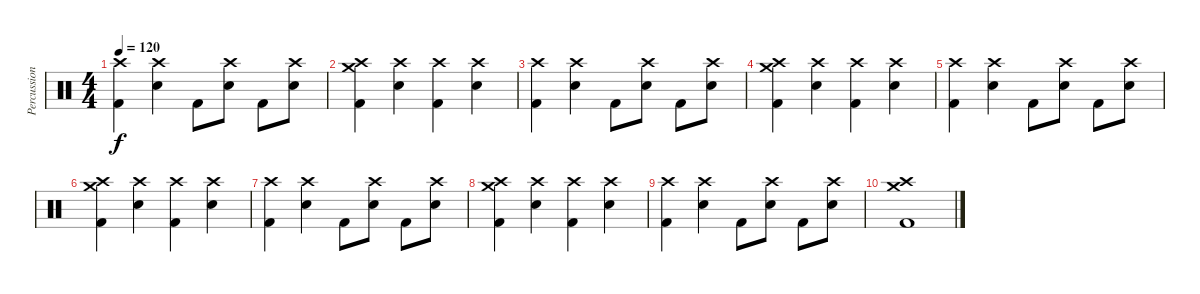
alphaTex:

\track ("Percussion" "Percussion") {instrument percussion}
\staff {score}
\articulation defaults
\ts (4 4)
\tempo 120
\clef neutral
\ks c
("Kick (hit) 2" "Crash high (hit)").4{dy f} ("Snare (hit) 2" "Crash high (hit)").4 "Kick (hit) 2".8 ("Snare (hit) 2" "Crash high (hit)").8 "Kick (hit) 2".8 ("Snare (hit) 2" "Crash high (hit)").8 |
("Kick (hit) 2" "Crash high (hit)" "Crash medium (hit)").4 ("Snare (hit) 2" "Crash high (hit)").4 ("Kick (hit) 2" "Crash high (hit)").4 ("Snare (hit) 2" "Crash high (hit)").4 |
("Kick (hit) 2" "Crash high (hit)").4 ("Snare (hit) 2" "Crash high (hit)").4 "Kick (hit) 2".8 ("Snare (hit) 2" "Crash high (hit)").8 "Kick (hit) 2".8 ("Snare (hit) 2" "Crash high (hit)").8 |
("Kick (hit) 2" "Crash high (hit)" "Crash medium (hit)").4 ("Snare (hit) 2" "Crash high (hit)").4 ("Kick (hit) 2" "Crash high (hit)").4 ("Snare (hit) 2" "Crash high (hit)").4 |
("Kick (hit) 2" "Crash high (hit)").4 ("Snare (hit) 2" "Crash high (hit)").4 "Kick (hit) 2".8 ("Snare (hit) 2" "Crash high (hit)").8 "Kick (hit) 2".8 ("Snare (hit) 2" "Crash high (hit)").8 |
("Kick (hit) 2" "Crash high (hit)" "Crash medium (hit)").4 ("Snare (hit) 2" "Crash high (hit)").4 ("Kick (hit) 2" "Crash high (hit)").4 ("Snare (hit) 2" "Crash high (hit)").4 |
("Kick (hit) 2" "Crash high (hit)").4 ("Snare (hit) 2" "Crash high (hit)").4 "Kick (hit) 2".8 ("Snare (hit) 2" "Crash high (hit)").8 "Kick (hit) 2".8 ("Snare (hit) 2" "Crash high (hit)").8 |
("Kick (hit) 2" "Crash high (hit)" "Crash medium (hit)").4 ("Snare (hit) 2" "Crash high (hit)").4 ("Kick (hit) 2" "Crash high (hit)").4 ("Snare (hit) 2" "Crash high (hit)").4 |
("Kick (hit) 2" "Crash high (hit)").4 ("Snare (hit) 2" "Crash high (hit)").4 "Kick (hit) 2".8 ("Snare (hit) 2" "Crash high (hit)").8 "Kick (hit) 2".8 ("Snare (hit) 2" "Crash high (hit)").8 |
("Kick (hit) 2" "Crash high (hit)" "Crash medium (hit)").1
